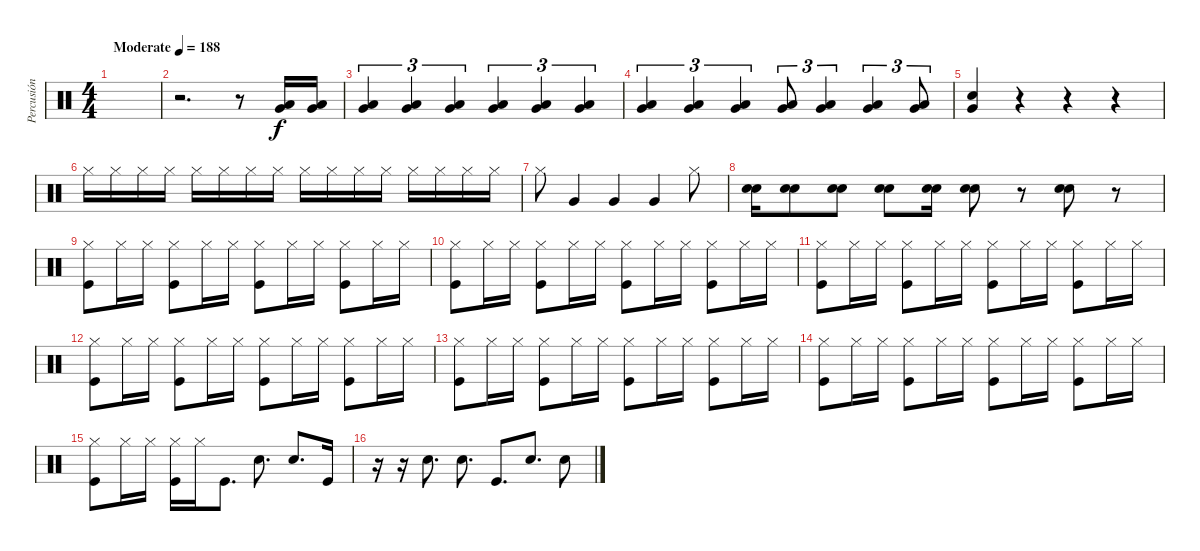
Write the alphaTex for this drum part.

\track ("Percusión" "Percusión") {instrument percussion}
\staff {score}
\articulation defaults
\ts (4 4)
\tempo (188 "Moderate")
\clef neutral
\ks c
|
r.2{d} r.8 ("Very Low Tom (hit)" "Low Floor Tom (hit)").16 ("Very Low Tom (hit)" "Low Floor Tom (hit)").16 |
("Very Low Tom (hit)" "Low Floor Tom (hit)").4{tu (3 2)} ("Very Low Tom (hit)" "Low Floor Tom (hit)").4{tu (3 2)} ("Very Low Tom (hit)" "Low Floor Tom (hit)").4{tu (3 2)} ("Very Low Tom (hit)" "Low Floor Tom (hit)").4{tu (3 2)} ("Very Low Tom (hit)" "Low Floor Tom (hit)").4{tu (3 2)} ("Very Low Tom (hit)" "Low Floor Tom (hit)").4{tu (3 2)} |
("Very Low Tom (hit)" "Low Floor Tom (hit)").4{tu (3 2)} ("Very Low Tom (hit)" "Low Floor Tom (hit)").4{tu (3 2)} ("Very Low Tom (hit)" "Low Floor Tom (hit)").4{tu (3 2)} ("Very Low Tom (hit)" "Low Floor Tom (hit)").8{tu (3 2)} ("Very Low Tom (hit)" "Low Floor Tom (hit)").4{tu (3 2)} ("Very Low Tom (hit)" "Low Floor Tom (hit)").4{tu (3 2)} ("Very Low Tom (hit)" "Low Floor Tom (hit)").8{tu (3 2)} |
("Very Low Tom (hit)" "Snare (hit)").4 r.4 r.4 r.4 |
"Hi-Hat (closed)".16{volume 10} "Hi-Hat (closed)".16 "Hi-Hat (closed)".16 "Hi-Hat (closed)".16 "Hi-Hat (closed)".16 "Hi-Hat (closed)".16 "Hi-Hat (closed)".16 "Hi-Hat (closed)".16 "Hi-Hat (closed)".16 "Hi-Hat (closed)".16 "Hi-Hat (closed)".16 "Hi-Hat (closed)".16 "Hi-Hat (closed)".16 "Hi-Hat (closed)".16 "Hi-Hat (closed)".16 "Hi-Hat (closed)".16 |
"Hi-Hat (closed)".8{volume 13} "Very Low Tom (hit)".4 "Very Low Tom (hit)".4 "Very Low Tom (hit)".4 "Hi-Hat (closed)".8 |
("Electric Snare (hit)" "Snare (hit) 2").16{volume 14} ("Electric Snare (hit)" "Snare (hit) 2").8 ("Electric Snare (hit)" "Snare (hit) 2").8 ("Electric Snare (hit)" "Snare (hit) 2").8{volume 15} ("Electric Snare (hit)" "Snare (hit) 2").16 ("Electric Snare (hit)" "Snare (hit) 2").8 r.8 ("Electric Snare (hit)" "Snare (hit) 2").8 r.8 |
("Hi-Hat (closed)" "Kick (hit)").8 "Hi-Hat (closed)".16 "Hi-Hat (closed)".16 ("Hi-Hat (closed)" "Kick (hit)").8 "Hi-Hat (closed)".16 "Hi-Hat (closed)".16 ("Hi-Hat (closed)" "Kick (hit)").8 "Hi-Hat (closed)".16 "Hi-Hat (closed)".16 ("Hi-Hat (closed)" "Kick (hit)").8 "Hi-Hat (closed)".16 "Hi-Hat (closed)".16 |
("Hi-Hat (closed)" "Kick (hit)").8 "Hi-Hat (closed)".16 "Hi-Hat (closed)".16 ("Hi-Hat (closed)" "Kick (hit)").8 "Hi-Hat (closed)".16 "Hi-Hat (closed)".16 ("Hi-Hat (closed)" "Kick (hit)").8 "Hi-Hat (closed)".16 "Hi-Hat (closed)".16 ("Hi-Hat (closed)" "Kick (hit)").8 "Hi-Hat (closed)".16 "Hi-Hat (closed)".16 |
("Hi-Hat (closed)" "Kick (hit)").8 "Hi-Hat (closed)".16 "Hi-Hat (closed)".16 ("Hi-Hat (closed)" "Kick (hit)").8 "Hi-Hat (closed)".16 "Hi-Hat (closed)".16 ("Hi-Hat (closed)" "Kick (hit)").8 "Hi-Hat (closed)".16 "Hi-Hat (closed)".16 ("Hi-Hat (closed)" "Kick (hit)").8 "Hi-Hat (closed)".16 "Hi-Hat (closed)".16 |
("Hi-Hat (closed)" "Kick (hit)").8 "Hi-Hat (closed)".16 "Hi-Hat (closed)".16 ("Hi-Hat (closed)" "Kick (hit)").8 "Hi-Hat (closed)".16 "Hi-Hat (closed)".16 ("Hi-Hat (closed)" "Kick (hit)").8 "Hi-Hat (closed)".16 "Hi-Hat (closed)".16 ("Hi-Hat (closed)" "Kick (hit)").8 "Hi-Hat (closed)".16 "Hi-Hat (closed)".16 |
("Hi-Hat (closed)" "Kick (hit)").8 "Hi-Hat (closed)".16 "Hi-Hat (closed)".16 ("Hi-Hat (closed)" "Kick (hit)").8 "Hi-Hat (closed)".16 "Hi-Hat (closed)".16 ("Hi-Hat (closed)" "Kick (hit)").8 "Hi-Hat (closed)".16 "Hi-Hat (closed)".16 ("Hi-Hat (closed)" "Kick (hit)").8 "Hi-Hat (closed)".16 "Hi-Hat (closed)".16 |
("Hi-Hat (closed)" "Kick (hit)").8 "Hi-Hat (closed)".16 "Hi-Hat (closed)".16 ("Hi-Hat (closed)" "Kick (hit)").8 "Hi-Hat (closed)".16 "Hi-Hat (closed)".16 ("Hi-Hat (closed)" "Kick (hit)").8 "Hi-Hat (closed)".16 "Hi-Hat (closed)".16 ("Hi-Hat (closed)" "Kick (hit)").8 "Hi-Hat (closed)".16 "Hi-Hat (closed)".16 |
("Hi-Hat (closed)" "Kick (hit)").8 "Hi-Hat (closed)".16 "Hi-Hat (closed)".16{volume 13} ("Hi-Hat (closed)" "Kick (hit)").16 "Hi-Hat (closed)".16 "Kick (hit)".8{d} "Electric Snare (hit)".8{d} "Electric Snare (hit)".8{d} "Kick (hit)".16 |
r.16 r.16 "Electric Snare (hit)".8{d} "Electric Snare (hit)".8{d} "Kick (hit)".8{d} "Electric Snare (hit)".8{d} "Electric Snare (hit)".8
